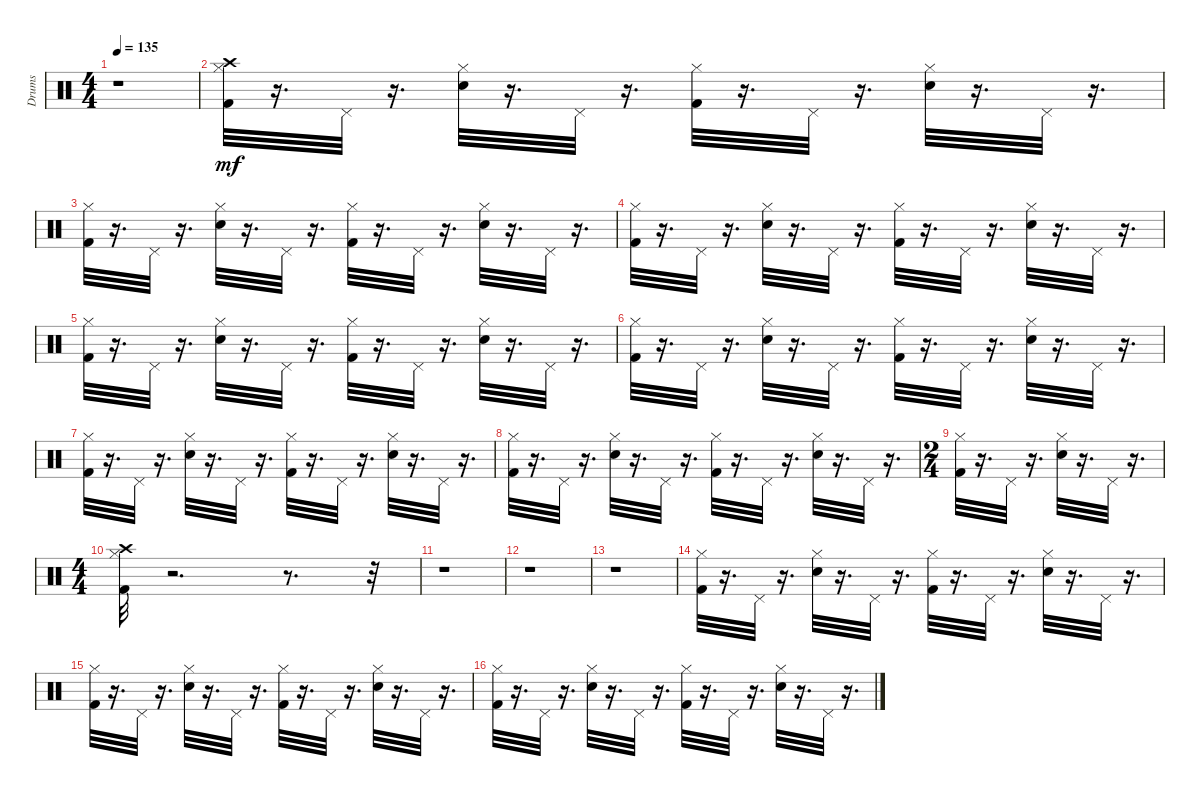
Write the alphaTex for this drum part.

\track ("Drums" "Drums") {instrument percussion}
\staff {score}
\articulation defaults
\ts (4 4)
\tempo 135
\clef neutral
\ks c
r.1{dy ff} |
("Hi-Hat (closed)" "Kick (hit) 2" "Crash high (hit)").32{dy mf} r.16{d} "Pedal Hi-Hat (hit)".32 r.16{d} ("Hi-Hat (closed)" "Snare (hit) 2").32 r.16{d} "Pedal Hi-Hat (hit)".32 r.16{d} ("Hi-Hat (closed)" "Kick (hit) 2").32 r.16{d} "Pedal Hi-Hat (hit)".32 r.16{d} ("Hi-Hat (closed)" "Snare (hit) 2").32 r.16{d} "Pedal Hi-Hat (hit)".32 r.16{d} |
("Hi-Hat (closed)" "Kick (hit) 2").32 r.16{d} "Pedal Hi-Hat (hit)".32 r.16{d} ("Hi-Hat (closed)" "Snare (hit) 2").32 r.16{d} "Pedal Hi-Hat (hit)".32 r.16{d} ("Hi-Hat (closed)" "Kick (hit) 2").32 r.16{d} "Pedal Hi-Hat (hit)".32 r.16{d} ("Hi-Hat (closed)" "Snare (hit) 2").32 r.16{d} "Pedal Hi-Hat (hit)".32 r.16{d} |
("Hi-Hat (closed)" "Kick (hit) 2").32 r.16{d} "Pedal Hi-Hat (hit)".32 r.16{d} ("Hi-Hat (closed)" "Snare (hit) 2").32 r.16{d} "Pedal Hi-Hat (hit)".32 r.16{d} ("Hi-Hat (closed)" "Kick (hit) 2").32 r.16{d} "Pedal Hi-Hat (hit)".32 r.16{d} ("Hi-Hat (closed)" "Snare (hit) 2").32 r.16{d} "Pedal Hi-Hat (hit)".32 r.16{d} |
("Hi-Hat (closed)" "Kick (hit) 2").32 r.16{d} "Pedal Hi-Hat (hit)".32 r.16{d} ("Hi-Hat (closed)" "Snare (hit) 2").32 r.16{d} "Pedal Hi-Hat (hit)".32 r.16{d} ("Hi-Hat (closed)" "Kick (hit) 2").32 r.16{d} "Pedal Hi-Hat (hit)".32 r.16{d} ("Hi-Hat (closed)" "Snare (hit) 2").32 r.16{d} "Pedal Hi-Hat (hit)".32 r.16{d} |
("Hi-Hat (closed)" "Kick (hit) 2").32 r.16{d} "Pedal Hi-Hat (hit)".32 r.16{d} ("Hi-Hat (closed)" "Snare (hit) 2").32 r.16{d} "Pedal Hi-Hat (hit)".32 r.16{d} ("Hi-Hat (closed)" "Kick (hit) 2").32 r.16{d} "Pedal Hi-Hat (hit)".32 r.16{d} ("Hi-Hat (closed)" "Snare (hit) 2").32 r.16{d} "Pedal Hi-Hat (hit)".32 r.16{d} |
("Hi-Hat (closed)" "Kick (hit) 2").32 r.16{d} "Pedal Hi-Hat (hit)".32 r.16{d} ("Hi-Hat (closed)" "Snare (hit) 2").32 r.16{d} "Pedal Hi-Hat (hit)".32 r.16{d} ("Hi-Hat (closed)" "Kick (hit) 2").32 r.16{d} "Pedal Hi-Hat (hit)".32 r.16{d} ("Hi-Hat (closed)" "Snare (hit) 2").32 r.16{d} "Pedal Hi-Hat (hit)".32 r.16{d} |
("Hi-Hat (closed)" "Kick (hit) 2").32 r.16{d} "Pedal Hi-Hat (hit)".32 r.16{d} ("Hi-Hat (closed)" "Snare (hit) 2").32 r.16{d} "Pedal Hi-Hat (hit)".32 r.16{d} ("Hi-Hat (closed)" "Kick (hit) 2").32 r.16{d} "Pedal Hi-Hat (hit)".32 r.16{d} ("Hi-Hat (closed)" "Snare (hit) 2").32 r.16{d} "Pedal Hi-Hat (hit)".32 r.16{d} |
\ts (2 4)
("Hi-Hat (closed)" "Kick (hit) 2").32 r.16{d} "Pedal Hi-Hat (hit)".32 r.16{d} ("Hi-Hat (closed)" "Snare (hit) 2").32 r.16{d} "Pedal Hi-Hat (hit)".32 r.16{d} |
\ts (4 4)
("Crash high (hit)" "Hi-Hat (closed)" "Kick (hit) 2").32 r.2{d} r.8{d} r.32 |
r.1 |
r.1 |
r.1 |
("Hi-Hat (closed)" "Kick (hit) 2").32 r.16{d} "Pedal Hi-Hat (hit)".32 r.16{d} ("Hi-Hat (closed)" "Snare (hit) 2").32 r.16{d} "Pedal Hi-Hat (hit)".32 r.16{d} ("Hi-Hat (closed)" "Kick (hit) 2").32 r.16{d} "Pedal Hi-Hat (hit)".32 r.16{d} ("Hi-Hat (closed)" "Snare (hit) 2").32 r.16{d} "Pedal Hi-Hat (hit)".32 r.16{d} |
("Hi-Hat (closed)" "Kick (hit) 2").32 r.16{d} "Pedal Hi-Hat (hit)".32 r.16{d} ("Hi-Hat (closed)" "Snare (hit) 2").32 r.16{d} "Pedal Hi-Hat (hit)".32 r.16{d} ("Hi-Hat (closed)" "Kick (hit) 2").32 r.16{d} "Pedal Hi-Hat (hit)".32 r.16{d} ("Hi-Hat (closed)" "Snare (hit) 2").32 r.16{d} "Pedal Hi-Hat (hit)".32 r.16{d} |
("Hi-Hat (closed)" "Kick (hit) 2").32 r.16{d} "Pedal Hi-Hat (hit)".32 r.16{d} ("Hi-Hat (closed)" "Snare (hit) 2").32 r.16{d} "Pedal Hi-Hat (hit)".32 r.16{d} ("Hi-Hat (closed)" "Kick (hit) 2").32 r.16{d} "Pedal Hi-Hat (hit)".32 r.16{d} ("Hi-Hat (closed)" "Snare (hit) 2").32 r.16{d} "Pedal Hi-Hat (hit)".32 r.16{d}
